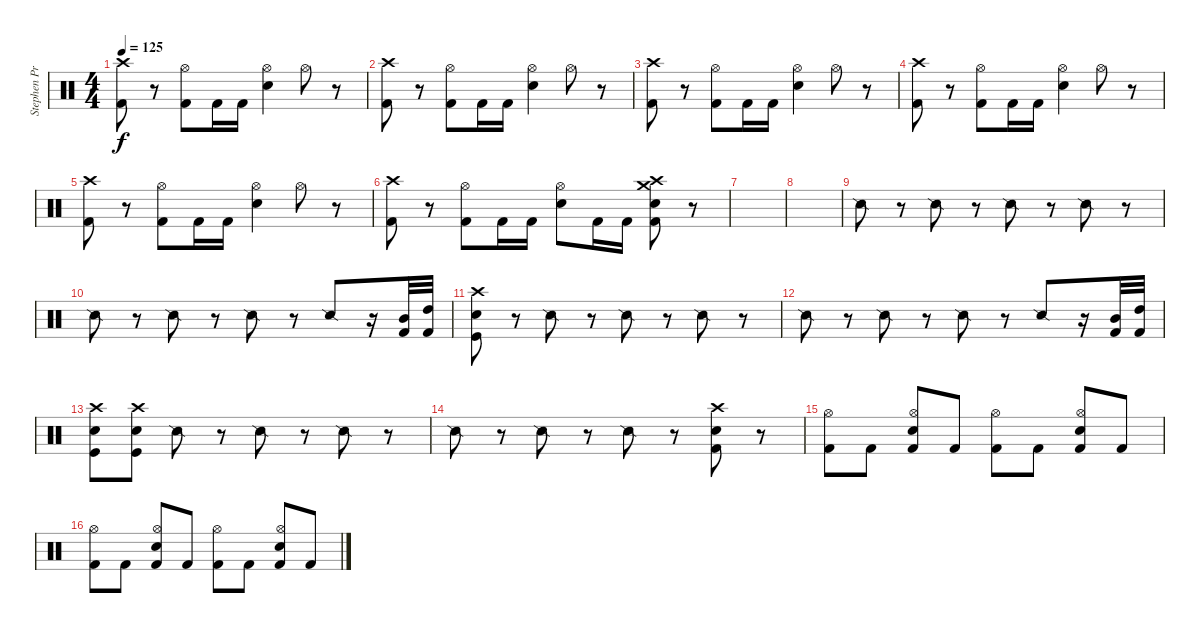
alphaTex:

\track ("Stephen Priestly" "Stephen Pr") {instrument percussion}
\staff {score}
\articulation defaults
\ts (4 4)
\tempo 125
\clef neutral
\ks c
("Crash high (hit)" "Kick (hit) 2").8{dy f} r.8 ("Hi-Hat (open)" "Kick (hit) 2").8 "Kick (hit) 2".16 "Kick (hit) 2".16 ("Hi-Hat (open)" "Snare (hit) 2").4 "Hi-Hat (open)".8 r.8 |
("Crash high (hit)" "Kick (hit) 2").8 r.8 ("Hi-Hat (open)" "Kick (hit) 2").8 "Kick (hit) 2".16 "Kick (hit) 2".16 ("Hi-Hat (open)" "Snare (hit) 2").4 "Hi-Hat (open)".8 r.8 |
("Crash high (hit)" "Kick (hit) 2").8 r.8 ("Hi-Hat (open)" "Kick (hit) 2").8 "Kick (hit) 2".16 "Kick (hit) 2".16 ("Hi-Hat (open)" "Snare (hit) 2").4 "Hi-Hat (open)".8 r.8 |
("Crash high (hit)" "Kick (hit) 2").8 r.8 ("Hi-Hat (open)" "Kick (hit) 2").8 "Kick (hit) 2".16 "Kick (hit) 2".16 ("Hi-Hat (open)" "Snare (hit) 2").4 "Hi-Hat (open)".8 r.8 |
("Crash high (hit)" "Kick (hit) 2").8 r.8 ("Hi-Hat (open)" "Kick (hit) 2").8 "Kick (hit) 2".16 "Kick (hit) 2".16 ("Hi-Hat (open)" "Snare (hit) 2").4 "Hi-Hat (open)".8 r.8 |
("Crash high (hit)" "Kick (hit) 2").8 r.8 ("Hi-Hat (open)" "Kick (hit) 2").8 "Kick (hit) 2".16 "Kick (hit) 2".16 ("Hi-Hat (open)" "Snare (hit) 2").8 "Kick (hit) 2".16 "Kick (hit) 2".16 ("Crash medium (hit)" "Crash high (hit)" "Snare (hit) 2" "Kick (hit) 2").8 r.8 |
|
|
"Snare (side stick) 2".8 r.8 "Snare (side stick) 2".8 r.8 "Snare (side stick) 2".8 r.8 "Snare (side stick) 2".8 r.8 |
"Snare (side stick) 2".8 r.8 "Snare (side stick) 2".8 r.8 "Snare (side stick) 2".8 r.8 "Snare (side stick) 2".8 r.16 ("Mid Tom (hit)" "Kick (hit) 2").32 ("High Tom (hit)" "Kick (hit) 2").32 |
("Crash high (hit)" "Electric Snare (hit)" "Kick (hit)").8 r.8 "Snare (side stick) 2".8 r.8 "Snare (side stick) 2".8 r.8 "Snare (side stick) 2".8 r.8 |
"Snare (side stick) 2".8 r.8 "Snare (side stick) 2".8 r.8 "Snare (side stick) 2".8 r.8 "Snare (side stick) 2".8 r.16 ("Mid Tom (hit)" "Kick (hit) 2").32 ("High Tom (hit)" "Kick (hit) 2").32 |
("Crash high (hit)" "Electric Snare (hit)" "Kick (hit)").8 ("Crash high (hit)" "Electric Snare (hit)" "Kick (hit)").8 "Snare (side stick) 2".8 r.8 "Snare (side stick) 2".8 r.8 "Snare (side stick) 2".8 r.8 |
"Snare (side stick) 2".8 r.8 "Snare (side stick) 2".8 r.8 "Snare (side stick) 2".8 r.8 ("Crash high (hit)" "Electric Snare (hit)" "Kick (hit) 2").8 r.8 |
("Hi-Hat (open)" "Kick (hit) 2").8 "Kick (hit) 2".8 ("Hi-Hat (open)" "Snare (hit) 2" "Kick (hit) 2").8 "Kick (hit) 2".8 ("Hi-Hat (open)" "Kick (hit) 2").8 "Kick (hit) 2".8 ("Hi-Hat (open)" "Snare (hit) 2" "Kick (hit) 2").8 "Kick (hit) 2".8 |
("Hi-Hat (open)" "Kick (hit) 2").8 "Kick (hit) 2".8 ("Hi-Hat (open)" "Snare (hit) 2" "Kick (hit) 2").8 "Kick (hit) 2".8 ("Hi-Hat (open)" "Kick (hit) 2").8 "Kick (hit) 2".8 ("Hi-Hat (open)" "Snare (hit) 2" "Kick (hit) 2").8 "Kick (hit) 2".8
